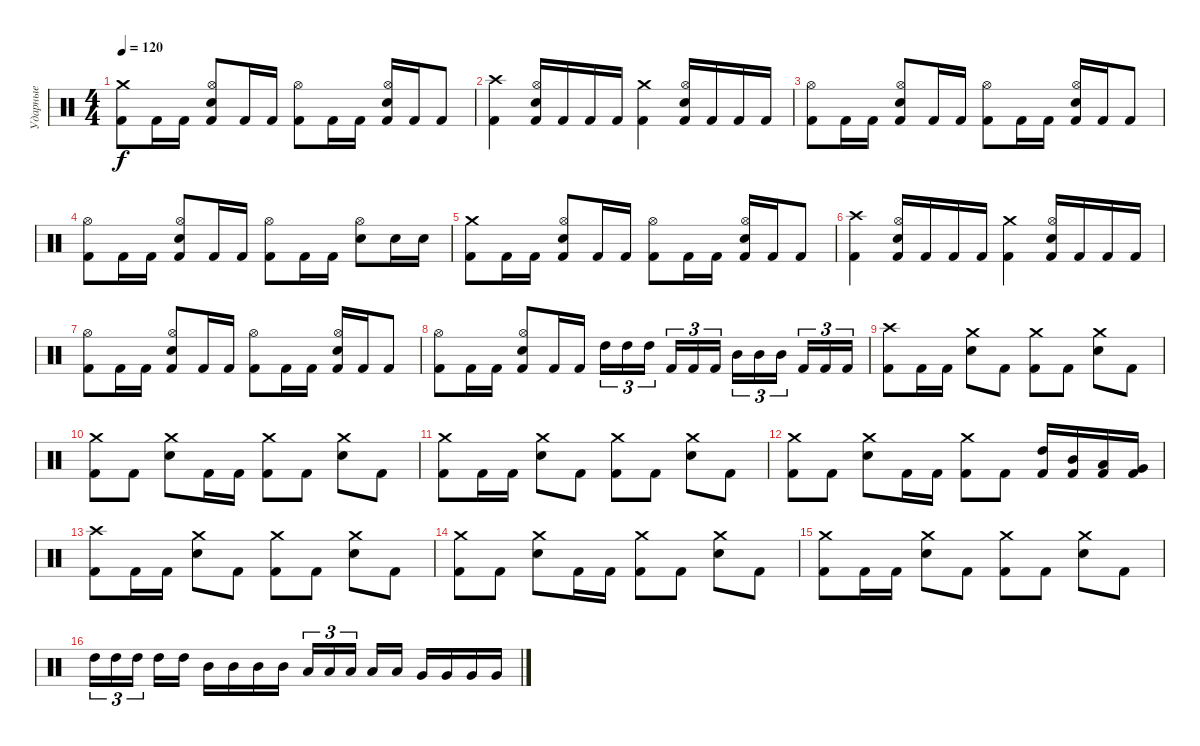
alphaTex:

\track ("Ударные" "Ударные") {instrument percussion}
\staff {score}
\articulation defaults
\ts (4 4)
\tempo 120
\clef neutral
\ks c
("Crash medium (hit)" "Kick (hit) 2").8{dy f} "Kick (hit) 2".16 "Kick (hit) 2".16 ("Hi-Hat (open)" "Electric Snare (hit)" "Kick (hit) 2").8 "Kick (hit) 2".16 "Kick (hit) 2".16 ("Hi-Hat (open)" "Kick (hit) 2").8 "Kick (hit) 2".16 "Kick (hit) 2".16 ("Hi-Hat (open)" "Electric Snare (hit)" "Kick (hit) 2").16 "Kick (hit) 2".16 "Kick (hit) 2".8 |
("Crash high (hit)" "Kick (hit) 2").4 ("Hi-Hat (open)" "Electric Snare (hit)" "Kick (hit) 2").16 "Kick (hit) 2".16 "Kick (hit) 2".16 "Kick (hit) 2".16 ("Crash medium (hit)" "Kick (hit) 2").4 ("Hi-Hat (open)" "Electric Snare (hit)" "Kick (hit) 2").16 "Kick (hit) 2".16 "Kick (hit) 2".16 "Kick (hit) 2".16 |
("Hi-Hat (open)" "Kick (hit) 2").8 "Kick (hit) 2".16 "Kick (hit) 2".16 ("Hi-Hat (open)" "Electric Snare (hit)" "Kick (hit) 2").8 "Kick (hit) 2".16 "Kick (hit) 2".16 ("Hi-Hat (open)" "Kick (hit) 2").8 "Kick (hit) 2".16 "Kick (hit) 2".16 ("Hi-Hat (open)" "Electric Snare (hit)" "Kick (hit) 2").16 "Kick (hit) 2".16 "Kick (hit) 2".8 |
("Hi-Hat (open)" "Kick (hit) 2").8 "Kick (hit) 2".16 "Kick (hit) 2".16 ("Hi-Hat (open)" "Electric Snare (hit)" "Kick (hit) 2").8 "Kick (hit) 2".16 "Kick (hit) 2".16 ("Hi-Hat (open)" "Kick (hit) 2").8 "Kick (hit) 2".16 "Kick (hit) 2".16 ("Hi-Hat (open)" "Electric Snare (hit)").8 "Electric Snare (hit)".16 "Electric Snare (hit)".16 |
("Crash medium (hit)" "Kick (hit) 2").8 "Kick (hit) 2".16 "Kick (hit) 2".16 ("Hi-Hat (open)" "Electric Snare (hit)" "Kick (hit) 2").8 "Kick (hit) 2".16 "Kick (hit) 2".16 ("Hi-Hat (open)" "Kick (hit) 2").8 "Kick (hit) 2".16 "Kick (hit) 2".16 ("Hi-Hat (open)" "Electric Snare (hit)" "Kick (hit) 2").16 "Kick (hit) 2".16 "Kick (hit) 2".8 |
("Crash high (hit)" "Kick (hit) 2").4 ("Hi-Hat (open)" "Electric Snare (hit)" "Kick (hit) 2").16 "Kick (hit) 2".16 "Kick (hit) 2".16 "Kick (hit) 2".16 ("Crash medium (hit)" "Kick (hit) 2").4 ("Hi-Hat (open)" "Electric Snare (hit)" "Kick (hit) 2").16 "Kick (hit) 2".16 "Kick (hit) 2".16 "Kick (hit) 2".16 |
("Hi-Hat (open)" "Kick (hit) 2").8 "Kick (hit) 2".16 "Kick (hit) 2".16 ("Hi-Hat (open)" "Electric Snare (hit)" "Kick (hit) 2").8 "Kick (hit) 2".16 "Kick (hit) 2".16 ("Hi-Hat (open)" "Kick (hit) 2").8 "Kick (hit) 2".16 "Kick (hit) 2".16 ("Hi-Hat (open)" "Electric Snare (hit)" "Kick (hit) 2").16 "Kick (hit) 2".16 "Kick (hit) 2".8 |
("Hi-Hat (open)" "Kick (hit) 2").8 "Kick (hit) 2".16 "Kick (hit) 2".16 ("Hi-Hat (open)" "Electric Snare (hit)" "Kick (hit) 2").8 "Kick (hit) 2".16 "Kick (hit) 2".16 "High Tom (hit)".16{tu (3 2)} "High Tom (hit)".16{tu (3 2)} "High Tom (hit)".16{tu (3 2) beam splitsecondary} "Kick (hit) 2".16{tu (3 2)} "Kick (hit) 2".16{tu (3 2)} "Kick (hit) 2".16{tu (3 2)} "Mid Tom (hit)".16{tu (3 2)} "Mid Tom (hit)".16{tu (3 2)} "Mid Tom (hit)".16{tu (3 2) beam splitsecondary} "Kick (hit) 2".16{tu (3 2)} "Kick (hit) 2".16{tu (3 2)} "Kick (hit) 2".16{tu (3 2)} |
("Crash high (hit)" "Kick (hit) 2").8 "Kick (hit) 2".16 "Kick (hit) 2".16 ("Crash medium (hit)" "Electric Snare (hit)").8 "Kick (hit) 2".8 ("Crash medium (hit)" "Kick (hit) 2").8 "Kick (hit) 2".8 ("Crash medium (hit)" "Electric Snare (hit)").8 "Kick (hit) 2".8 |
("Crash medium (hit)" "Kick (hit) 2").8 "Kick (hit) 2".8 ("Crash medium (hit)" "Electric Snare (hit)").8 "Kick (hit) 2".16 "Kick (hit) 2".16 ("Crash medium (hit)" "Kick (hit) 2").8 "Kick (hit) 2".8 ("Crash medium (hit)" "Electric Snare (hit)").8 "Kick (hit) 2".8 |
("Crash medium (hit)" "Kick (hit) 2").8 "Kick (hit) 2".16 "Kick (hit) 2".16 ("Crash medium (hit)" "Electric Snare (hit)").8 "Kick (hit) 2".8 ("Crash medium (hit)" "Kick (hit) 2").8 "Kick (hit) 2".8 ("Crash medium (hit)" "Electric Snare (hit)").8 "Kick (hit) 2".8 |
("Crash medium (hit)" "Kick (hit) 2").8 "Kick (hit) 2".8 ("Crash medium (hit)" "Electric Snare (hit)").8 "Kick (hit) 2".16 "Kick (hit) 2".16 ("Crash medium (hit)" "Kick (hit) 2").8 "Kick (hit) 2".8 ("High Tom (hit)" "Kick (hit) 2").16 ("Mid Tom (hit)" "Kick (hit) 2").16 ("Low Tom (hit)" "Kick (hit) 2").16 ("Very Low Tom (hit)" "Kick (hit) 2").16 |
("Crash high (hit)" "Kick (hit) 2").8 "Kick (hit) 2".16 "Kick (hit) 2".16 ("Crash medium (hit)" "Electric Snare (hit)").8 "Kick (hit) 2".8 ("Crash medium (hit)" "Kick (hit) 2").8 "Kick (hit) 2".8 ("Crash medium (hit)" "Electric Snare (hit)").8 "Kick (hit) 2".8 |
("Crash medium (hit)" "Kick (hit) 2").8 "Kick (hit) 2".8 ("Crash medium (hit)" "Electric Snare (hit)").8 "Kick (hit) 2".16 "Kick (hit) 2".16 ("Crash medium (hit)" "Kick (hit) 2").8 "Kick (hit) 2".8 ("Crash medium (hit)" "Electric Snare (hit)").8 "Kick (hit) 2".8 |
("Crash medium (hit)" "Kick (hit) 2").8 "Kick (hit) 2".16 "Kick (hit) 2".16 ("Crash medium (hit)" "Electric Snare (hit)").8 "Kick (hit) 2".8 ("Crash medium (hit)" "Kick (hit) 2").8 "Kick (hit) 2".8 ("Crash medium (hit)" "Electric Snare (hit)").8 "Kick (hit) 2".8 |
"High Tom (hit)".16{tu (3 2)} "High Tom (hit)".16{tu (3 2)} "High Tom (hit)".16{tu (3 2) beam splitsecondary} "High Tom (hit)".16 "High Tom (hit)".16 "Mid Tom (hit)".16 "Mid Tom (hit)".16 "Mid Tom (hit)".16 "Mid Tom (hit)".16 "Low Tom (hit)".16{tu (3 2)} "Low Tom (hit)".16{tu (3 2)} "Low Tom (hit)".16{tu (3 2) beam splitsecondary} "Low Tom (hit)".16 "Low Tom (hit)".16 "Very Low Tom (hit)".16 "Very Low Tom (hit)".16 "Very Low Tom (hit)".16 "Very Low Tom (hit)".16
